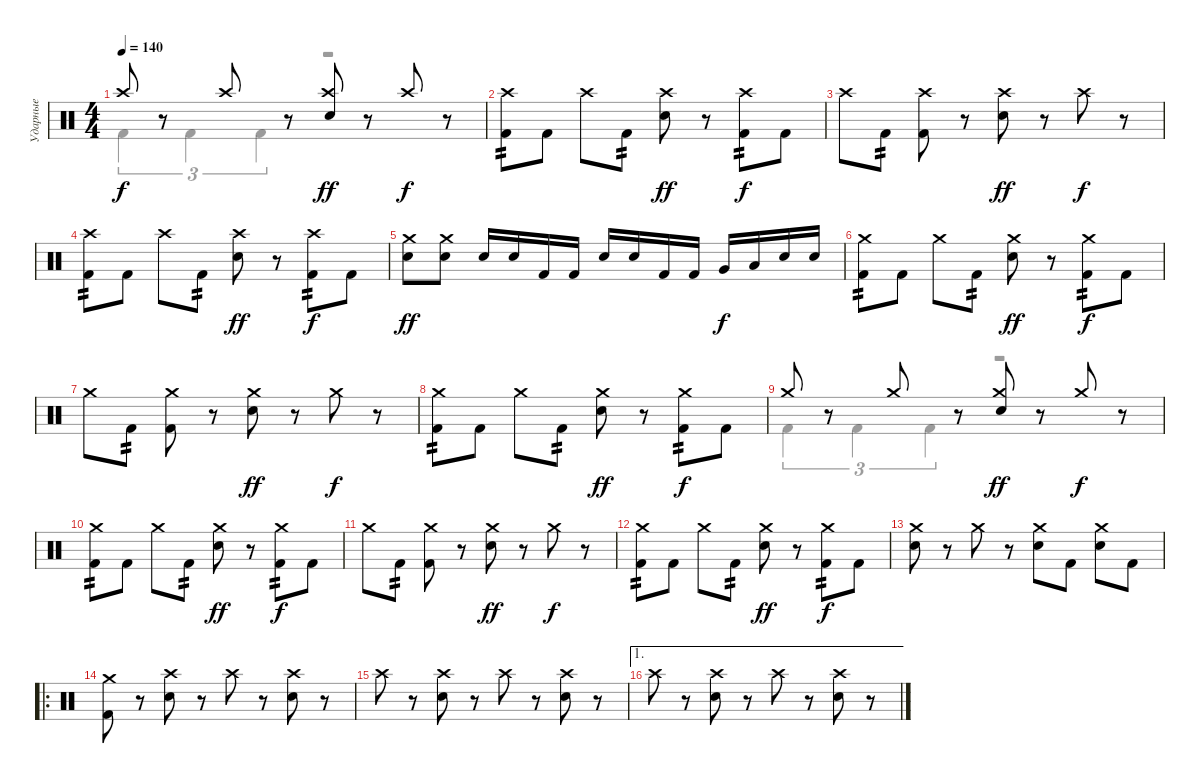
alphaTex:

\track ("Ударные" "Ударные") {instrument percussion}
\staff {score}
\articulation defaults
\voice
\ts (4 4)
\tempo 140
\clef neutral
\ks c "Crash high (hit)".8{dy f}
r.8 "Crash high (hit)".8 r.8 ("Crash high (hit)" "Electric Snare (hit)").8{dy ff} r.8 "Crash high (hit)".8{dy f} r.8 |
("Crash high (hit)" "Kick (hit) 2").8{tp 2} "Kick (hit) 2".8 "Crash high (hit)".8 "Kick (hit) 2".8{tp 2} ("Crash high (hit)" "Electric Snare (hit)").8{dy ff} r.8 ("Crash high (hit)" "Kick (hit) 2").8{tp 2 dy f} "Kick (hit) 2".8 |
"Crash high (hit)".8 "Kick (hit) 2".8{tp 2} ("Crash high (hit)" "Kick (hit) 2").8 r.8 ("Crash high (hit)" "Electric Snare (hit)").8{dy ff} r.8 "Crash high (hit)".8{dy f} r.8 |
("Crash high (hit)" "Kick (hit) 2").8{tp 2} "Kick (hit) 2".8 "Crash high (hit)".8 "Kick (hit) 2".8{tp 2} ("Crash high (hit)" "Electric Snare (hit)").8{dy ff} r.8 ("Crash high (hit)" "Kick (hit) 2").8{tp 2 dy f} "Kick (hit) 2".8 |
("Crash medium (hit)" "Electric Snare (hit)").8{dy ff} ("Crash medium (hit)" "Electric Snare (hit)").8 "Electric Snare (hit)".16 "Electric Snare (hit)".16 "Kick (hit) 2".16 "Kick (hit) 2".16 "Electric Snare (hit)".16 "Electric Snare (hit)".16 "Kick (hit) 2".16 "Kick (hit) 2".16 "Very Low Tom (hit)".16{dy f} "Low Floor Tom (hit)".16 "Electric Snare (hit)".16 "Electric Snare (hit)".16 |
("Crash medium (hit)" "Kick (hit) 2").8{tp 2} "Kick (hit) 2".8 "Crash medium (hit)".8 "Kick (hit) 2".8{tp 2} ("Crash medium (hit)" "Electric Snare (hit)").8{dy ff} r.8 ("Crash medium (hit)" "Kick (hit) 2").8{tp 2 dy f} "Kick (hit) 2".8 |
"Crash medium (hit)".8 "Kick (hit) 2".8{tp 2} ("Crash medium (hit)" "Kick (hit) 2").8 r.8 ("Crash medium (hit)" "Electric Snare (hit)").8{dy ff} r.8 "Crash medium (hit)".8{dy f} r.8 |
("Crash medium (hit)" "Kick (hit) 2").8{tp 2} "Kick (hit) 2".8 "Crash medium (hit)".8 "Kick (hit) 2".8{tp 2} ("Crash medium (hit)" "Electric Snare (hit)").8{dy ff} r.8 ("Crash medium (hit)" "Kick (hit) 2").8{tp 2 dy f} "Kick (hit) 2".8 |
"Crash medium (hit)".8 r.8 "Crash medium (hit)".8 r.8 ("Crash medium (hit)" "Electric Snare (hit)").8{dy ff} r.8 "Crash medium (hit)".8{dy f} r.8 |
("Crash medium (hit)" "Kick (hit) 2").8{tp 2} "Kick (hit) 2".8 "Crash medium (hit)".8 "Kick (hit) 2".8{tp 2} ("Crash medium (hit)" "Electric Snare (hit)").8{dy ff} r.8 ("Crash medium (hit)" "Kick (hit) 2").8{tp 2 dy f} "Kick (hit) 2".8 |
"Crash medium (hit)".8 "Kick (hit) 2".8{tp 2} ("Crash medium (hit)" "Kick (hit) 2").8 r.8 ("Crash medium (hit)" "Electric Snare (hit)").8{dy ff} r.8 "Crash medium (hit)".8{dy f} r.8 |
("Crash medium (hit)" "Kick (hit) 2").8{tp 2} "Kick (hit) 2".8 "Crash medium (hit)".8 "Kick (hit) 2".8{tp 2} ("Crash medium (hit)" "Electric Snare (hit)").8{dy ff} r.8 ("Crash medium (hit)" "Kick (hit) 2").8{tp 2 dy f} "Kick (hit) 2".8 |
("Crash medium (hit)" "Snare (hit) 2").8 r.8 "Crash medium (hit)".8 r.8 ("Crash medium (hit)" "Electric Snare (hit)").8 "Kick (hit) 2".8 ("Crash medium (hit)" "Electric Snare (hit)").8 "Kick (hit) 2".8 |
\ro
("Crash medium (hit)" "Kick (hit) 2").8 r.8 ("Crash high (hit)" "Electric Snare (hit)").8 r.8 "Crash high (hit)".8 r.8 ("Crash high (hit)" "Electric Snare (hit)").8 r.8 |
"Crash high (hit)".8 r.8 ("Crash high (hit)" "Electric Snare (hit)").8 r.8 "Crash high (hit)".8 r.8 ("Crash high (hit)" "Electric Snare (hit)").8 r.8 |
\ae 1 "Crash high (hit)".8
r.8 ("Crash high (hit)" "Electric Snare (hit)").8 r.8 "Crash high (hit)".8 r.8 ("Crash high (hit)" "Electric Snare (hit)").8 r.8
\voice
\clef neutral
\ottava regular
\simile none
\ks c "Kick (hit) 2".4{tu (3 2) dy f} "Kick (hit) 2".4{tu (3 2)} "Kick (hit) 2".4{tu (3 2)}
r.2 |
|
|
|
|
|
|
|
"Kick (hit) 2".4{tu (3 2)} "Kick (hit) 2".4{tu (3 2)} "Kick (hit) 2".4{tu (3 2)} r.2 |
|
|
|
|
|
|
